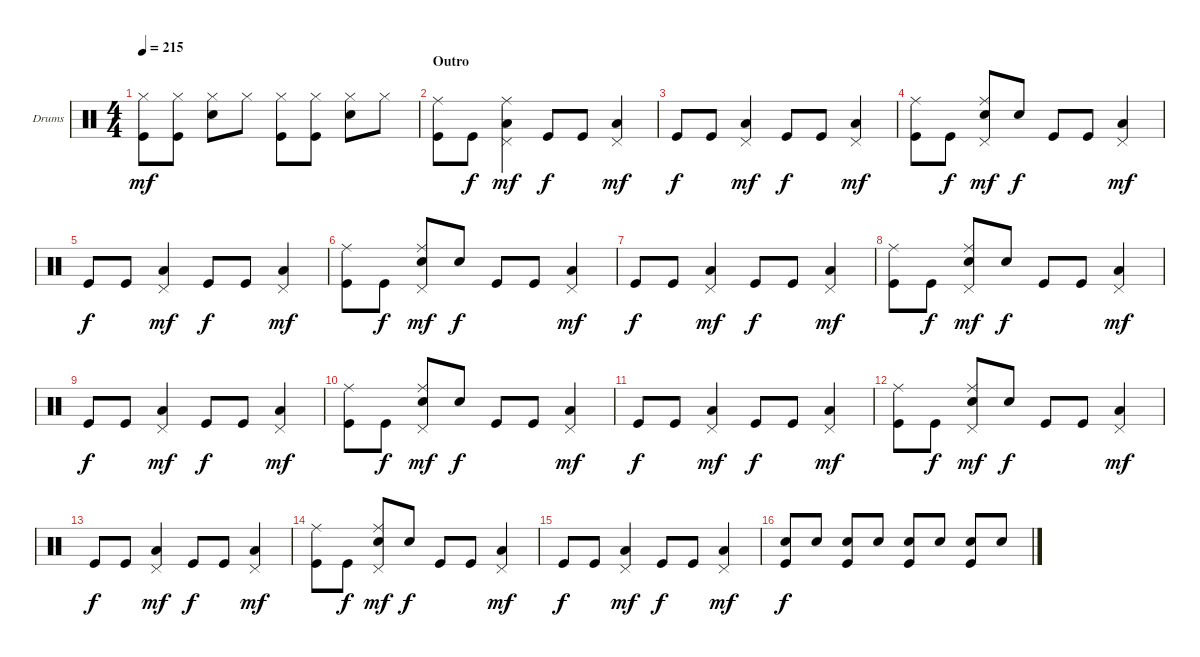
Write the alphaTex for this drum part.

\bracketExtendMode groupsimilarinstruments
\firstSystemTrackNameOrientation horizontal
\otherSystemsTrackNameOrientation horizontal
\track ("Drumkit" "Drums") {instrument percussion}
\staff {score}
\articulation defaults
\ts (4 4)
\tempo 215
\clef neutral
\ks c
("Hi-Hat (closed)" "Kick (hit)").8{dy mf} ("Hi-Hat (closed)" "Kick (hit)").8 ("Hi-Hat (closed)" "Snare (hit) 2").8 "Hi-Hat (closed)".8 ("Hi-Hat (closed)" "Kick (hit)").8 ("Hi-Hat (closed)" "Kick (hit)").8 ("Hi-Hat (closed)" "Snare (hit) 2").8 "Hi-Hat (closed)".8 |
\section ("" "Outro")
("Ride (middle)" "Kick (hit)").8 "Kick (hit)".8{dy f} ("Ride (middle)" "Pedal Hi-Hat (hit)" "Low Tom (hit)").4{dy mf} "Kick (hit)".8{dy f} "Kick (hit)".8 ("Pedal Hi-Hat (hit)" "Low Tom (hit)").4{dy mf} |
"Kick (hit)".8{dy f} "Kick (hit)".8 ("Pedal Hi-Hat (hit)" "Low Tom (hit)").4{dy mf} "Kick (hit)".8{dy f} "Kick (hit)".8 ("Pedal Hi-Hat (hit)" "Low Tom (hit)").4{dy mf} |
("Ride (middle)" "Kick (hit)").8 "Kick (hit)".8{dy f} ("Ride (middle)" "Pedal Hi-Hat (hit)" "Snare (hit) 2").8{dy mf} "Snare (hit) 2".8{dy f} "Kick (hit)".8 "Kick (hit)".8 ("Pedal Hi-Hat (hit)" "Low Tom (hit)").4{dy mf} |
"Kick (hit)".8{dy f} "Kick (hit)".8 ("Pedal Hi-Hat (hit)" "Low Tom (hit)").4{dy mf} "Kick (hit)".8{dy f} "Kick (hit)".8 ("Pedal Hi-Hat (hit)" "Low Tom (hit)").4{dy mf} |
("Ride (middle)" "Kick (hit)").8 "Kick (hit)".8{dy f} ("Ride (middle)" "Pedal Hi-Hat (hit)" "Snare (hit) 2").8{dy mf} "Snare (hit) 2".8{dy f} "Kick (hit)".8 "Kick (hit)".8 ("Pedal Hi-Hat (hit)" "Low Tom (hit)").4{dy mf} |
"Kick (hit)".8{dy f} "Kick (hit)".8 ("Pedal Hi-Hat (hit)" "Low Tom (hit)").4{dy mf} "Kick (hit)".8{dy f} "Kick (hit)".8 ("Pedal Hi-Hat (hit)" "Low Tom (hit)").4{dy mf} |
("Ride (middle)" "Kick (hit)").8 "Kick (hit)".8{dy f} ("Ride (middle)" "Pedal Hi-Hat (hit)" "Snare (hit) 2").8{dy mf} "Snare (hit) 2".8{dy f} "Kick (hit)".8 "Kick (hit)".8 ("Pedal Hi-Hat (hit)" "Low Tom (hit)").4{dy mf} |
"Kick (hit)".8{dy f} "Kick (hit)".8 ("Pedal Hi-Hat (hit)" "Low Tom (hit)").4{dy mf} "Kick (hit)".8{dy f} "Kick (hit)".8 ("Pedal Hi-Hat (hit)" "Low Tom (hit)").4{dy mf} |
("Ride (middle)" "Kick (hit)").8 "Kick (hit)".8{dy f} ("Ride (middle)" "Pedal Hi-Hat (hit)" "Snare (hit) 2").8{dy mf} "Snare (hit) 2".8{dy f} "Kick (hit)".8 "Kick (hit)".8 ("Pedal Hi-Hat (hit)" "Low Tom (hit)").4{dy mf} |
"Kick (hit)".8{dy f} "Kick (hit)".8 ("Pedal Hi-Hat (hit)" "Low Tom (hit)").4{dy mf} "Kick (hit)".8{dy f} "Kick (hit)".8 ("Pedal Hi-Hat (hit)" "Low Tom (hit)").4{dy mf} |
("Ride (middle)" "Kick (hit)").8 "Kick (hit)".8{dy f} ("Ride (middle)" "Pedal Hi-Hat (hit)" "Snare (hit) 2").8{dy mf} "Snare (hit) 2".8{dy f} "Kick (hit)".8 "Kick (hit)".8 ("Pedal Hi-Hat (hit)" "Low Tom (hit)").4{dy mf} |
"Kick (hit)".8{dy f} "Kick (hit)".8 ("Pedal Hi-Hat (hit)" "Low Tom (hit)").4{dy mf} "Kick (hit)".8{dy f} "Kick (hit)".8 ("Pedal Hi-Hat (hit)" "Low Tom (hit)").4{dy mf} |
("Ride (middle)" "Kick (hit)").8 "Kick (hit)".8{dy f} ("Ride (middle)" "Pedal Hi-Hat (hit)" "Snare (hit) 2").8{dy mf} "Snare (hit) 2".8{dy f} "Kick (hit)".8 "Kick (hit)".8 ("Pedal Hi-Hat (hit)" "Low Tom (hit)").4{dy mf} |
"Kick (hit)".8{dy f} "Kick (hit)".8 ("Pedal Hi-Hat (hit)" "Low Tom (hit)").4{dy mf} "Kick (hit)".8{dy f} "Kick (hit)".8 ("Pedal Hi-Hat (hit)" "Low Tom (hit)").4{dy mf} |
("Snare (hit) 2" "Kick (hit)").8{dy f} "Snare (hit) 2".8 ("Snare (hit) 2" "Kick (hit)").8 "Snare (hit) 2".8 ("Snare (hit) 2" "Kick (hit)").8 "Snare (hit) 2".8 ("Snare (hit) 2" "Kick (hit)").8 "Snare (hit) 2".8
